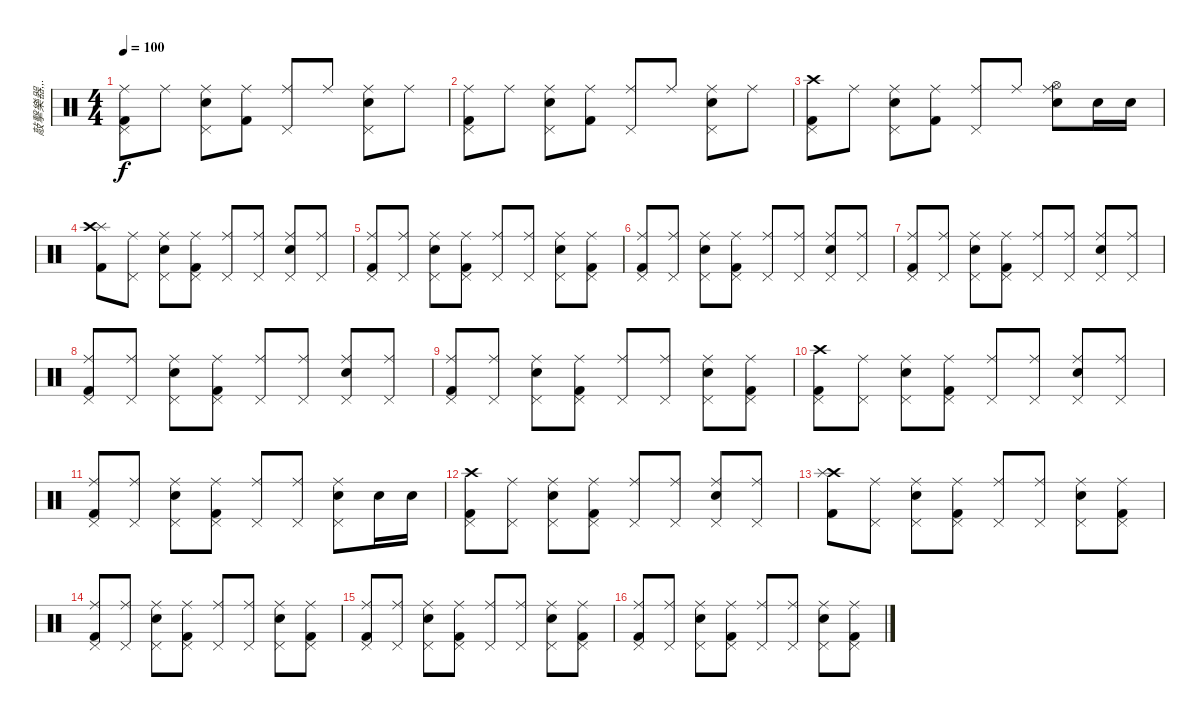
\track ("敲擊樂器,,." "敲擊樂器,,.") {instrument percussion}
\staff {score}
\articulation defaults
\ts (4 4)
\tempo 100
\clef neutral
\ks c
("Ride (middle)" "Pedal Hi-Hat (hit)" "Kick (hit) 2").8{dy f} "Ride (middle)".8 ("Ride (middle)" "Pedal Hi-Hat (hit)" "Snare (hit) 2").8 ("Ride (middle)" "Kick (hit) 2").8 ("Ride (middle)" "Pedal Hi-Hat (hit)").8 "Ride (middle)".8 ("Ride (middle)" "Pedal Hi-Hat (hit)" "Snare (hit) 2").8 "Ride (middle)".8 |
("Ride (middle)" "Pedal Hi-Hat (hit)" "Kick (hit) 2").8 "Ride (middle)".8 ("Ride (middle)" "Pedal Hi-Hat (hit)" "Snare (hit) 2").8 ("Ride (middle)" "Kick (hit) 2").8 ("Ride (middle)" "Pedal Hi-Hat (hit)").8 "Ride (middle)".8 ("Ride (middle)" "Pedal Hi-Hat (hit)" "Snare (hit) 2").8 "Ride (middle)".8 |
("Crash high (hit)" "Pedal Hi-Hat (hit)" "Kick (hit) 2").8 "Ride (middle)".8 ("Ride (middle)" "Pedal Hi-Hat (hit)" "Snare (hit) 2").8 ("Ride (middle)" "Kick (hit) 2").8 ("Ride (middle)" "Pedal Hi-Hat (hit)").8 "Ride (middle)".8 ("Ride (middle)" "Hi-Hat (open)" "Snare (hit) 2").8 "Snare (hit) 2".16 "Snare (hit) 2".16 |
("Splash (hit)" "Crash high (hit)" "Kick (hit) 2").8 ("Ride (middle)" "Pedal Hi-Hat (hit)").8 ("Ride (middle)" "Pedal Hi-Hat (hit)" "Snare (hit) 2").8 ("Ride (middle)" "Pedal Hi-Hat (hit)" "Kick (hit) 2").8 ("Ride (middle)" "Pedal Hi-Hat (hit)").8 ("Ride (middle)" "Pedal Hi-Hat (hit)").8 ("Ride (middle)" "Pedal Hi-Hat (hit)" "Snare (hit) 2").8 ("Ride (middle)" "Pedal Hi-Hat (hit)").8 |
("Ride (middle)" "Pedal Hi-Hat (hit)" "Kick (hit) 2").8 ("Ride (middle)" "Pedal Hi-Hat (hit)").8 ("Ride (middle)" "Pedal Hi-Hat (hit)" "Snare (hit) 2").8 ("Ride (middle)" "Pedal Hi-Hat (hit)" "Kick (hit) 2").8 ("Ride (middle)" "Pedal Hi-Hat (hit)").8 ("Ride (middle)" "Pedal Hi-Hat (hit)").8 ("Ride (middle)" "Pedal Hi-Hat (hit)" "Snare (hit) 2").8 ("Ride (middle)" "Pedal Hi-Hat (hit)" "Kick (hit) 2").8 |
("Ride (middle)" "Pedal Hi-Hat (hit)" "Kick (hit) 2").8 ("Ride (middle)" "Pedal Hi-Hat (hit)").8 ("Ride (middle)" "Pedal Hi-Hat (hit)" "Snare (hit) 2").8 ("Ride (middle)" "Pedal Hi-Hat (hit)" "Kick (hit) 2").8 ("Ride (middle)" "Pedal Hi-Hat (hit)").8 ("Ride (middle)" "Pedal Hi-Hat (hit)").8 ("Ride (middle)" "Pedal Hi-Hat (hit)" "Snare (hit) 2").8 ("Ride (middle)" "Pedal Hi-Hat (hit)").8 |
("Ride (middle)" "Pedal Hi-Hat (hit)" "Kick (hit) 2").8 ("Ride (middle)" "Pedal Hi-Hat (hit)").8 ("Ride (middle)" "Pedal Hi-Hat (hit)" "Snare (hit) 2").8 ("Ride (middle)" "Pedal Hi-Hat (hit)" "Kick (hit) 2").8 ("Ride (middle)" "Pedal Hi-Hat (hit)").8 ("Ride (middle)" "Pedal Hi-Hat (hit)").8 ("Ride (middle)" "Pedal Hi-Hat (hit)" "Snare (hit) 2").8 ("Ride (middle)" "Pedal Hi-Hat (hit)").8 |
("Ride (middle)" "Pedal Hi-Hat (hit)" "Kick (hit) 2").8 ("Ride (middle)" "Pedal Hi-Hat (hit)").8 ("Ride (middle)" "Pedal Hi-Hat (hit)" "Snare (hit) 2").8 ("Ride (middle)" "Pedal Hi-Hat (hit)" "Kick (hit) 2").8 ("Ride (middle)" "Pedal Hi-Hat (hit)").8 ("Ride (middle)" "Pedal Hi-Hat (hit)").8 ("Ride (middle)" "Pedal Hi-Hat (hit)" "Snare (hit) 2").8 ("Ride (middle)" "Pedal Hi-Hat (hit)").8 |
("Ride (middle)" "Pedal Hi-Hat (hit)" "Kick (hit) 2").8 ("Ride (middle)" "Pedal Hi-Hat (hit)").8 ("Ride (middle)" "Pedal Hi-Hat (hit)" "Snare (hit) 2").8 ("Ride (middle)" "Pedal Hi-Hat (hit)" "Kick (hit) 2").8 ("Ride (middle)" "Pedal Hi-Hat (hit)").8 ("Ride (middle)" "Pedal Hi-Hat (hit)").8 ("Ride (middle)" "Pedal Hi-Hat (hit)" "Snare (hit) 2").8 ("Ride (middle)" "Pedal Hi-Hat (hit)" "Kick (hit) 2").8 |
("Crash high (hit)" "Pedal Hi-Hat (hit)" "Kick (hit) 2").8 ("Ride (middle)" "Pedal Hi-Hat (hit)").8 ("Ride (middle)" "Pedal Hi-Hat (hit)" "Snare (hit) 2").8 ("Ride (middle)" "Pedal Hi-Hat (hit)" "Kick (hit) 2").8 ("Ride (middle)" "Pedal Hi-Hat (hit)").8 ("Ride (middle)" "Pedal Hi-Hat (hit)").8 ("Ride (middle)" "Pedal Hi-Hat (hit)" "Snare (hit) 2").8 ("Ride (middle)" "Pedal Hi-Hat (hit)").8 |
("Ride (middle)" "Pedal Hi-Hat (hit)" "Kick (hit) 2").8 ("Ride (middle)" "Pedal Hi-Hat (hit)").8 ("Ride (middle)" "Pedal Hi-Hat (hit)" "Snare (hit) 2").8 ("Ride (middle)" "Pedal Hi-Hat (hit)" "Kick (hit) 2").8 ("Ride (middle)" "Pedal Hi-Hat (hit)").8 ("Ride (middle)" "Pedal Hi-Hat (hit)").8 ("Ride (middle)" "Pedal Hi-Hat (hit)" "Snare (hit) 2").8 "Snare (hit) 2".16 "Snare (hit) 2".16 |
("Crash high (hit)" "Pedal Hi-Hat (hit)" "Kick (hit) 2").8 ("Ride (middle)" "Pedal Hi-Hat (hit)").8 ("Ride (middle)" "Pedal Hi-Hat (hit)" "Snare (hit) 2").8 ("Ride (middle)" "Pedal Hi-Hat (hit)" "Kick (hit) 2").8 ("Ride (middle)" "Pedal Hi-Hat (hit)").8 ("Ride (middle)" "Pedal Hi-Hat (hit)").8 ("Ride (middle)" "Pedal Hi-Hat (hit)" "Snare (hit) 2").8 ("Ride (middle)" "Pedal Hi-Hat (hit)").8 |
("Crash high (hit)" "Splash (hit)" "Kick (hit) 2").8 ("Ride (middle)" "Pedal Hi-Hat (hit)").8 ("Ride (middle)" "Pedal Hi-Hat (hit)" "Snare (hit) 2").8 ("Ride (middle)" "Pedal Hi-Hat (hit)" "Kick (hit) 2").8 ("Ride (middle)" "Pedal Hi-Hat (hit)").8 ("Ride (middle)" "Pedal Hi-Hat (hit)").8 ("Ride (middle)" "Pedal Hi-Hat (hit)" "Snare (hit) 2").8 ("Ride (middle)" "Pedal Hi-Hat (hit)" "Kick (hit) 2").8 |
("Ride (middle)" "Pedal Hi-Hat (hit)" "Kick (hit) 2").8 ("Ride (middle)" "Pedal Hi-Hat (hit)").8 ("Ride (middle)" "Pedal Hi-Hat (hit)" "Snare (hit) 2").8 ("Ride (middle)" "Pedal Hi-Hat (hit)" "Kick (hit) 2").8 ("Ride (middle)" "Pedal Hi-Hat (hit)").8 ("Ride (middle)" "Pedal Hi-Hat (hit)").8 ("Ride (middle)" "Pedal Hi-Hat (hit)" "Snare (hit) 2").8 ("Ride (middle)" "Pedal Hi-Hat (hit)" "Kick (hit) 2").8 |
("Ride (middle)" "Pedal Hi-Hat (hit)" "Kick (hit) 2").8 ("Ride (middle)" "Pedal Hi-Hat (hit)").8 ("Ride (middle)" "Pedal Hi-Hat (hit)" "Snare (hit) 2").8 ("Ride (middle)" "Pedal Hi-Hat (hit)" "Kick (hit) 2").8 ("Ride (middle)" "Pedal Hi-Hat (hit)").8 ("Ride (middle)" "Pedal Hi-Hat (hit)").8 ("Ride (middle)" "Pedal Hi-Hat (hit)" "Snare (hit) 2").8 ("Ride (middle)" "Pedal Hi-Hat (hit)" "Kick (hit) 2").8 |
("Ride (middle)" "Pedal Hi-Hat (hit)" "Kick (hit) 2").8 ("Ride (middle)" "Pedal Hi-Hat (hit)").8 ("Ride (middle)" "Pedal Hi-Hat (hit)" "Snare (hit) 2").8 ("Ride (middle)" "Pedal Hi-Hat (hit)" "Kick (hit) 2").8 ("Ride (middle)" "Pedal Hi-Hat (hit)").8 ("Ride (middle)" "Pedal Hi-Hat (hit)").8 ("Ride (middle)" "Pedal Hi-Hat (hit)" "Snare (hit) 2").8 ("Ride (middle)" "Pedal Hi-Hat (hit)" "Kick (hit) 2").8
